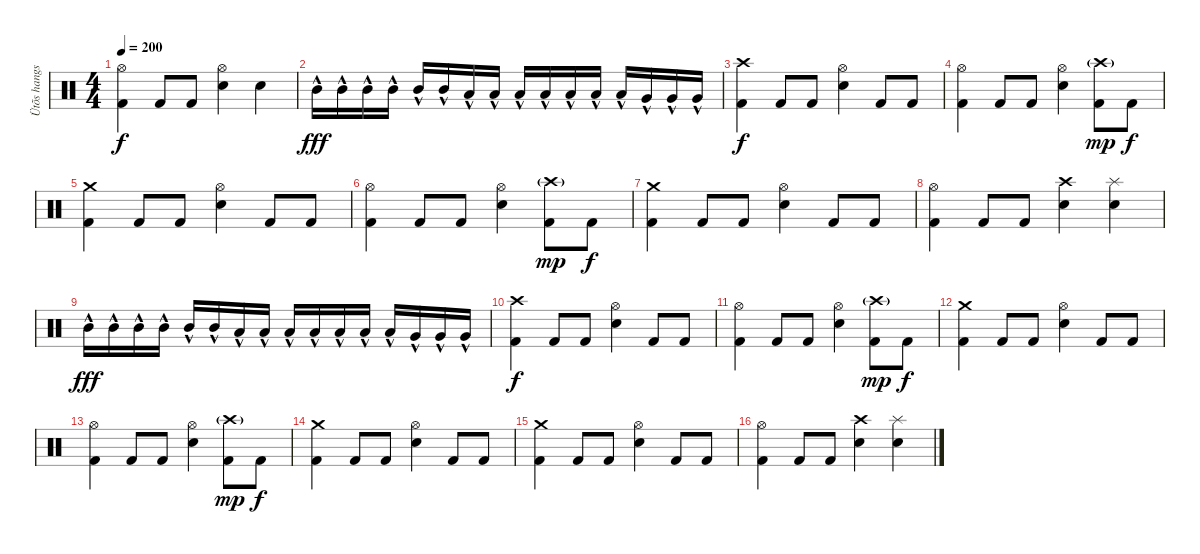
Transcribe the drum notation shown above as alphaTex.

\track ("Ütõs hangszer" "Ütõs hangs") {instrument percussion}
\staff {score}
\articulation defaults
\ts (4 4)
\tempo 200
\clef neutral
\ks c
("Hi-Hat (open)" "Kick (hit) 2").4{dy f} "Kick (hit) 2".8 "Kick (hit) 2".8 ("Hi-Hat (open)" "Snare (hit) 2").4 "Snare (hit) 2".4 |
"Mid Tom (hit)"{hac}.16{dy fff} "Mid Tom (hit)"{hac}.16 "Mid Tom (hit)"{hac}.16 "Mid Tom (hit)"{hac}.16 "Mid Tom (hit)"{hac}.16 "Mid Tom (hit)"{hac}.16 "Low Tom (hit)"{hac}.16 "Low Tom (hit)"{hac}.16 "Low Tom (hit)"{hac}.16 "Low Tom (hit)"{hac}.16 "Low Tom (hit)"{hac}.16 "Low Tom (hit)"{hac}.16 "Low Tom (hit)"{hac}.16 "Very Low Tom (hit)"{hac}.16 "Very Low Tom (hit)"{hac}.16 "Very Low Tom (hit)"{hac}.16 |
("Crash high (hit)" "Kick (hit) 2").4{dy f} "Kick (hit) 2".8 "Kick (hit) 2".8 ("Hi-Hat (open)" "Snare (hit) 2").4 "Kick (hit) 2".8 "Kick (hit) 2".8 |
("Hi-Hat (open)" "Kick (hit) 2").4 "Kick (hit) 2".8 "Kick (hit) 2".8 ("Hi-Hat (open)" "Snare (hit) 2").4 ("Crash high (hit)"{g} "Kick (hit) 2").8{dy mp} "Kick (hit) 2".8{dy f} |
("Crash medium (hit)" "Kick (hit) 2").4 "Kick (hit) 2".8 "Kick (hit) 2".8 ("Hi-Hat (open)" "Snare (hit) 2").4 "Kick (hit) 2".8 "Kick (hit) 2".8 |
("Hi-Hat (open)" "Kick (hit) 2").4 "Kick (hit) 2".8 "Kick (hit) 2".8 ("Hi-Hat (open)" "Snare (hit) 2").4 ("Crash high (hit)"{g} "Kick (hit) 2").8{dy mp} "Kick (hit) 2".8{dy f} |
("Crash medium (hit)" "Kick (hit) 2").4 "Kick (hit) 2".8 "Kick (hit) 2".8 ("Hi-Hat (open)" "Snare (hit) 2").4 "Kick (hit) 2".8 "Kick (hit) 2".8 |
("Hi-Hat (open)" "Kick (hit) 2").4 "Kick (hit) 2".8 "Kick (hit) 2".8 ("Crash high (hit)" "Snare (hit) 2").4 ("Splash (hit)" "Snare (hit) 2").4 |
"Mid Tom (hit)"{hac}.16{dy fff} "Mid Tom (hit)"{hac}.16 "Mid Tom (hit)"{hac}.16 "Mid Tom (hit)"{hac}.16 "Mid Tom (hit)"{hac}.16 "Mid Tom (hit)"{hac}.16 "Low Tom (hit)"{hac}.16 "Low Tom (hit)"{hac}.16 "Low Tom (hit)"{hac}.16 "Low Tom (hit)"{hac}.16 "Low Tom (hit)"{hac}.16 "Low Tom (hit)"{hac}.16 "Low Tom (hit)"{hac}.16 "Very Low Tom (hit)"{hac}.16 "Very Low Tom (hit)"{hac}.16 "Very Low Tom (hit)"{hac}.16 |
("Crash high (hit)" "Kick (hit) 2").4{dy f} "Kick (hit) 2".8 "Kick (hit) 2".8 ("Hi-Hat (open)" "Snare (hit) 2").4 "Kick (hit) 2".8 "Kick (hit) 2".8 |
("Hi-Hat (open)" "Kick (hit) 2").4 "Kick (hit) 2".8 "Kick (hit) 2".8 ("Hi-Hat (open)" "Snare (hit) 2").4 ("Crash high (hit)"{g} "Kick (hit) 2").8{dy mp} "Kick (hit) 2".8{dy f} |
("Crash medium (hit)" "Kick (hit) 2").4 "Kick (hit) 2".8 "Kick (hit) 2".8 ("Hi-Hat (open)" "Snare (hit) 2").4 "Kick (hit) 2".8 "Kick (hit) 2".8 |
("Hi-Hat (open)" "Kick (hit) 2").4 "Kick (hit) 2".8 "Kick (hit) 2".8 ("Hi-Hat (open)" "Snare (hit) 2").4 ("Crash high (hit)"{g} "Kick (hit) 2").8{dy mp} "Kick (hit) 2".8{dy f} |
("Crash medium (hit)" "Kick (hit) 2").4 "Kick (hit) 2".8 "Kick (hit) 2".8 ("Hi-Hat (open)" "Snare (hit) 2").4 "Kick (hit) 2".8 "Kick (hit) 2".8 |
("Crash medium (hit)" "Kick (hit) 2").4 "Kick (hit) 2".8 "Kick (hit) 2".8 ("Hi-Hat (open)" "Snare (hit) 2").4 "Kick (hit) 2".8 "Kick (hit) 2".8 |
("Hi-Hat (open)" "Kick (hit) 2").4 "Kick (hit) 2".8 "Kick (hit) 2".8 ("Crash high (hit)" "Snare (hit) 2").4 ("Splash (hit)" "Snare (hit) 2").4
